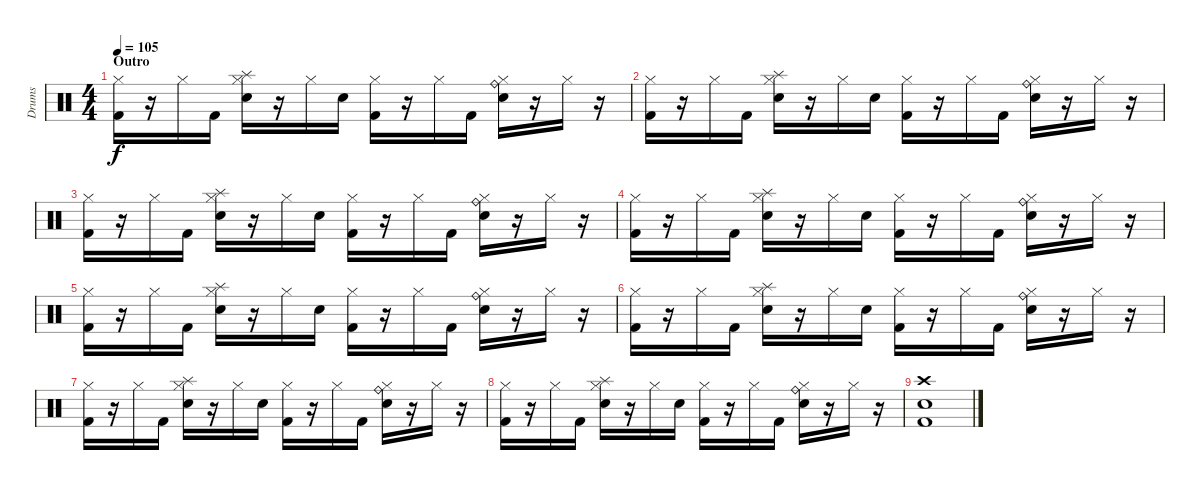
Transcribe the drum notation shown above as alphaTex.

\track ("Drums" "Drums") {instrument percussion}
\staff {score}
\articulation defaults
\ts (4 4)
\section ("" "Outro")
\tempo 105
\clef neutral
\ks c
("Hi-Hat (closed)" "Kick (hit) 2").16{dy f} r.16 "Hi-Hat (closed)".16 "Kick (hit) 2".16 ("Hi-Hat (closed)" "Electric Snare (hit)" "Splash (hit)").16 r.16 "Hi-Hat (closed)".16 "Snare (hit) 2".16 ("Hi-Hat (closed)" "Kick (hit) 2").16 r.16 "Hi-Hat (closed)".16 "Kick (hit) 2".16 ("Hi-Hat (closed)" "Electric Snare (hit)" "Ride (bell)").16 r.16 "Hi-Hat (closed)".16 r.16 |
("Hi-Hat (closed)" "Kick (hit) 2").16 r.16 "Hi-Hat (closed)".16 "Kick (hit) 2".16 ("Hi-Hat (closed)" "Electric Snare (hit)" "Splash (hit)").16 r.16 "Hi-Hat (closed)".16 "Snare (hit) 2".16 ("Hi-Hat (closed)" "Kick (hit) 2").16 r.16 "Hi-Hat (closed)".16 "Kick (hit) 2".16 ("Hi-Hat (closed)" "Electric Snare (hit)" "Ride (bell)").16 r.16 "Hi-Hat (closed)".16 r.16 |
("Hi-Hat (closed)" "Kick (hit) 2").16 r.16 "Hi-Hat (closed)".16 "Kick (hit) 2".16 ("Hi-Hat (closed)" "Electric Snare (hit)" "Splash (hit)").16 r.16 "Hi-Hat (closed)".16 "Snare (hit) 2".16 ("Hi-Hat (closed)" "Kick (hit) 2").16 r.16 "Hi-Hat (closed)".16 "Kick (hit) 2".16 ("Hi-Hat (closed)" "Electric Snare (hit)" "Ride (bell)").16 r.16 "Hi-Hat (closed)".16 r.16 |
("Hi-Hat (closed)" "Kick (hit) 2").16 r.16 "Hi-Hat (closed)".16 "Kick (hit) 2".16 ("Hi-Hat (closed)" "Electric Snare (hit)" "Splash (hit)").16 r.16 "Hi-Hat (closed)".16 "Snare (hit) 2".16 ("Hi-Hat (closed)" "Kick (hit) 2").16 r.16 "Hi-Hat (closed)".16 "Kick (hit) 2".16 ("Hi-Hat (closed)" "Electric Snare (hit)" "Ride (bell)").16 r.16 "Hi-Hat (closed)".16 r.16 |
("Hi-Hat (closed)" "Kick (hit) 2").16 r.16 "Hi-Hat (closed)".16 "Kick (hit) 2".16 ("Hi-Hat (closed)" "Electric Snare (hit)" "Splash (hit)").16 r.16 "Hi-Hat (closed)".16 "Snare (hit) 2".16 ("Hi-Hat (closed)" "Kick (hit) 2").16 r.16 "Hi-Hat (closed)".16 "Kick (hit) 2".16 ("Hi-Hat (closed)" "Electric Snare (hit)" "Ride (bell)").16 r.16 "Hi-Hat (closed)".16 r.16 |
("Hi-Hat (closed)" "Kick (hit) 2").16 r.16 "Hi-Hat (closed)".16 "Kick (hit) 2".16 ("Hi-Hat (closed)" "Electric Snare (hit)" "Splash (hit)").16 r.16 "Hi-Hat (closed)".16 "Snare (hit) 2".16 ("Hi-Hat (closed)" "Kick (hit) 2").16 r.16 "Hi-Hat (closed)".16 "Kick (hit) 2".16 ("Hi-Hat (closed)" "Electric Snare (hit)" "Ride (bell)").16 r.16 "Hi-Hat (closed)".16 r.16 |
("Hi-Hat (closed)" "Kick (hit) 2").16 r.16 "Hi-Hat (closed)".16 "Kick (hit) 2".16 ("Hi-Hat (closed)" "Electric Snare (hit)" "Splash (hit)").16 r.16 "Hi-Hat (closed)".16 "Snare (hit) 2".16 ("Hi-Hat (closed)" "Kick (hit) 2").16 r.16 "Hi-Hat (closed)".16 "Kick (hit) 2".16 ("Hi-Hat (closed)" "Electric Snare (hit)" "Ride (bell)").16 r.16 "Hi-Hat (closed)".16 r.16 |
("Hi-Hat (closed)" "Kick (hit) 2").16 r.16 "Hi-Hat (closed)".16 "Kick (hit) 2".16 ("Hi-Hat (closed)" "Electric Snare (hit)" "Splash (hit)").16 r.16 "Hi-Hat (closed)".16 "Snare (hit) 2".16 ("Hi-Hat (closed)" "Kick (hit) 2").16 r.16 "Hi-Hat (closed)".16 "Kick (hit) 2".16 ("Hi-Hat (closed)" "Electric Snare (hit)" "Ride (bell)").16 r.16 "Hi-Hat (closed)".16 r.16 |
("Kick (hit) 2" "Snare (hit) 2" "Crash high (hit)").1
